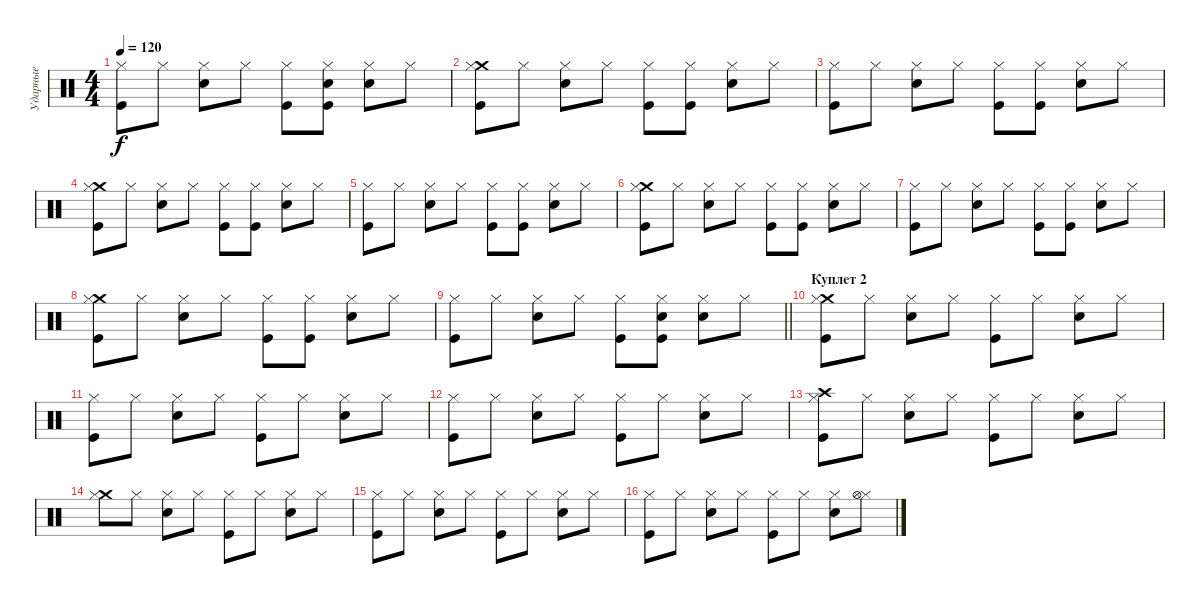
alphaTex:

\track ("Ударные" "Ударные") {instrument percussion}
\staff {score}
\articulation defaults
\ts (4 4)
\tempo 120
\clef neutral
\ks c
("Kick (hit)" "Hi-Hat (closed)").8{dy f} "Hi-Hat (closed)".8 ("Snare (hit) 2" "Hi-Hat (closed)").8 "Hi-Hat (closed)".8 ("Kick (hit)" "Hi-Hat (closed)").8 ("Kick (hit)" "Hi-Hat (closed)" "Snare (hit) 2").8 ("Snare (hit) 2" "Hi-Hat (closed)").8 "Hi-Hat (closed)".8 |
("Crash medium (hit)" "Hi-Hat (closed)" "Kick (hit)").8 "Hi-Hat (closed)".8 ("Snare (hit) 2" "Hi-Hat (closed)").8 "Hi-Hat (closed)".8 ("Kick (hit)" "Hi-Hat (closed)").8 ("Kick (hit)" "Hi-Hat (closed)").8 ("Snare (hit) 2" "Hi-Hat (closed)").8 "Hi-Hat (closed)".8 |
("Kick (hit)" "Hi-Hat (closed)").8 "Hi-Hat (closed)".8 ("Snare (hit) 2" "Hi-Hat (closed)").8 "Hi-Hat (closed)".8 ("Kick (hit)" "Hi-Hat (closed)").8 ("Kick (hit)" "Hi-Hat (closed)").8 ("Snare (hit) 2" "Hi-Hat (closed)").8 "Hi-Hat (closed)".8 |
("Crash medium (hit)" "Hi-Hat (closed)" "Kick (hit)").8 "Hi-Hat (closed)".8 ("Snare (hit) 2" "Hi-Hat (closed)").8 "Hi-Hat (closed)".8 ("Kick (hit)" "Hi-Hat (closed)").8 ("Kick (hit)" "Hi-Hat (closed)").8 ("Snare (hit) 2" "Hi-Hat (closed)").8 "Hi-Hat (closed)".8 |
("Kick (hit)" "Hi-Hat (closed)").8 "Hi-Hat (closed)".8 ("Snare (hit) 2" "Hi-Hat (closed)").8 "Hi-Hat (closed)".8 ("Kick (hit)" "Hi-Hat (closed)").8 ("Kick (hit)" "Hi-Hat (closed)").8 ("Snare (hit) 2" "Hi-Hat (closed)").8 "Hi-Hat (closed)".8 |
("Crash medium (hit)" "Hi-Hat (closed)" "Kick (hit)").8 "Hi-Hat (closed)".8 ("Snare (hit) 2" "Hi-Hat (closed)").8 "Hi-Hat (closed)".8 ("Kick (hit)" "Hi-Hat (closed)").8 ("Kick (hit)" "Hi-Hat (closed)").8 ("Snare (hit) 2" "Hi-Hat (closed)").8 "Hi-Hat (closed)".8 |
("Kick (hit)" "Hi-Hat (closed)").8 "Hi-Hat (closed)".8 ("Snare (hit) 2" "Hi-Hat (closed)").8 "Hi-Hat (closed)".8 ("Kick (hit)" "Hi-Hat (closed)").8 ("Kick (hit)" "Hi-Hat (closed)").8 ("Snare (hit) 2" "Hi-Hat (closed)").8 "Hi-Hat (closed)".8 |
("Crash medium (hit)" "Hi-Hat (closed)" "Kick (hit)").8 "Hi-Hat (closed)".8 ("Snare (hit) 2" "Hi-Hat (closed)").8 "Hi-Hat (closed)".8 ("Kick (hit)" "Hi-Hat (closed)").8 ("Kick (hit)" "Hi-Hat (closed)").8 ("Snare (hit) 2" "Hi-Hat (closed)").8 "Hi-Hat (closed)".8 |
\barLineRight lightlight
("Kick (hit)" "Hi-Hat (closed)").8 "Hi-Hat (closed)".8 ("Snare (hit) 2" "Hi-Hat (closed)").8 "Hi-Hat (closed)".8 ("Kick (hit)" "Hi-Hat (closed)").8 ("Kick (hit)" "Hi-Hat (closed)" "Snare (hit) 2").8 ("Snare (hit) 2" "Hi-Hat (closed)").8 "Hi-Hat (closed)".8 |
\section ("" "Куплет 2")
("Crash medium (hit)" "Hi-Hat (closed)" "Kick (hit)").8 "Hi-Hat (closed)".8 ("Snare (hit) 2" "Hi-Hat (closed)").8 "Hi-Hat (closed)".8 ("Kick (hit)" "Hi-Hat (closed)").8 "Hi-Hat (closed)".8 ("Snare (hit) 2" "Hi-Hat (closed)").8 "Hi-Hat (closed)".8 |
("Kick (hit)" "Hi-Hat (closed)").8 "Hi-Hat (closed)".8 ("Snare (hit) 2" "Hi-Hat (closed)").8 "Hi-Hat (closed)".8 ("Kick (hit)" "Hi-Hat (closed)").8 "Hi-Hat (closed)".8 ("Snare (hit) 2" "Hi-Hat (closed)").8 "Hi-Hat (closed)".8 |
("Hi-Hat (closed)" "Kick (hit)").8 "Hi-Hat (closed)".8 ("Snare (hit) 2" "Hi-Hat (closed)").8 "Hi-Hat (closed)".8 ("Kick (hit)" "Hi-Hat (closed)").8 "Hi-Hat (closed)".8 ("Snare (hit) 2" "Hi-Hat (closed)").8 "Hi-Hat (closed)".8 |
("Kick (hit)" "Hi-Hat (closed)" "Crash high (hit)").8 "Hi-Hat (closed)".8 ("Snare (hit) 2" "Hi-Hat (closed)").8 "Hi-Hat (closed)".8 ("Kick (hit)" "Hi-Hat (closed)").8 "Hi-Hat (closed)".8 ("Snare (hit) 2" "Hi-Hat (closed)").8 "Hi-Hat (closed)".8 |
("Crash medium (hit)" "Hi-Hat (closed)").8 "Hi-Hat (closed)".8 ("Snare (hit) 2" "Hi-Hat (closed)").8 "Hi-Hat (closed)".8 ("Kick (hit)" "Hi-Hat (closed)").8 "Hi-Hat (closed)".8 ("Snare (hit) 2" "Hi-Hat (closed)").8 "Hi-Hat (closed)".8 |
("Kick (hit)" "Hi-Hat (closed)").8 "Hi-Hat (closed)".8 ("Snare (hit) 2" "Hi-Hat (closed)").8 "Hi-Hat (closed)".8 ("Kick (hit)" "Hi-Hat (closed)").8 "Hi-Hat (closed)".8 ("Snare (hit) 2" "Hi-Hat (closed)").8 "Hi-Hat (closed)".8 |
("Hi-Hat (closed)" "Kick (hit)").8 "Hi-Hat (closed)".8 ("Snare (hit) 2" "Hi-Hat (closed)").8 "Hi-Hat (closed)".8 ("Kick (hit)" "Hi-Hat (closed)").8 "Hi-Hat (closed)".8 ("Snare (hit) 2" "Hi-Hat (closed)").8 ("Hi-Hat (closed)" "Hi-Hat (open)").8
